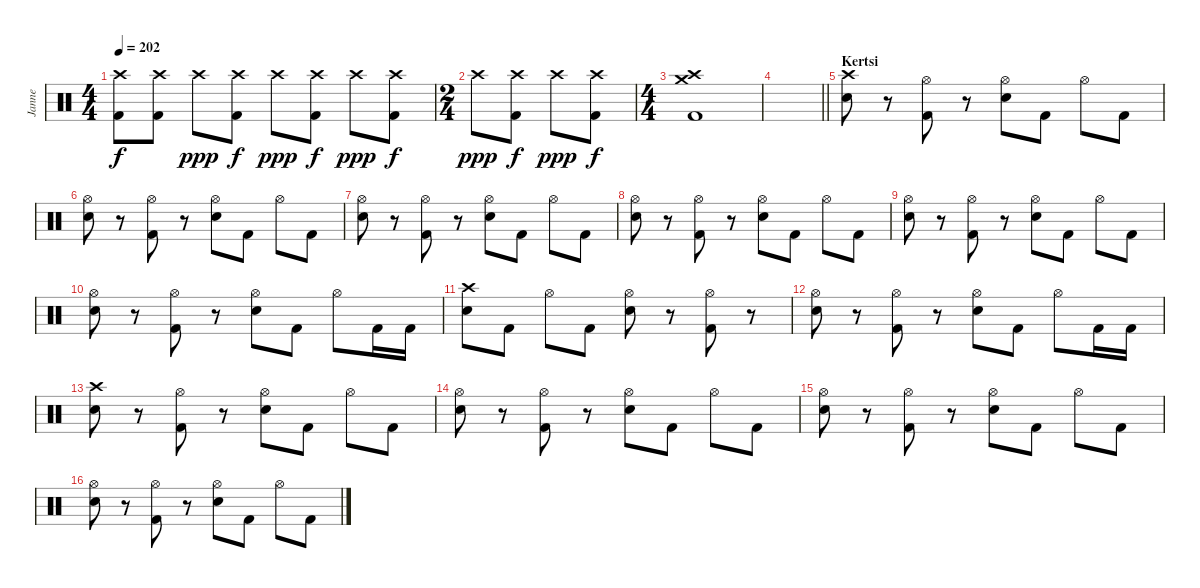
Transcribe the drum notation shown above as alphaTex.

\track ("Janne" "Janne") {instrument percussion}
\staff {score}
\articulation defaults
\ts (4 4)
\tempo 202
\clef neutral
\ks c
("Crash high (hit)" "Kick (hit) 2").8{dy f} ("Crash high (hit)" "Kick (hit) 2").8 "Crash high (hit)".8{dy ppp} ("Crash high (hit)" "Kick (hit) 2").8{dy f} "Crash high (hit)".8{dy ppp} ("Crash high (hit)" "Kick (hit) 2").8{dy f} "Crash high (hit)".8{dy ppp} ("Crash high (hit)" "Kick (hit) 2").8{dy f} |
\ts (2 4)
"Crash high (hit)".8{dy ppp} ("Crash high (hit)" "Kick (hit) 2").8{dy f} "Crash high (hit)".8{dy ppp} ("Crash high (hit)" "Kick (hit) 2").8{dy f} |
\ts (4 4)
("Crash high (hit)" "Crash medium (hit)" "Kick (hit) 2").1 |
\barLineRight lightlight
|
\section ("" "Kertsi")
("Crash high (hit)" "Electric Snare (hit)").8 r.8 ("Hi-Hat (open)" "Kick (hit) 2").8 r.8 ("Hi-Hat (open)" "Electric Snare (hit)").8 "Kick (hit) 2".8 "Hi-Hat (open)".8 "Kick (hit) 2".8 |
("Hi-Hat (open)" "Electric Snare (hit)").8 r.8 ("Hi-Hat (open)" "Kick (hit) 2").8 r.8 ("Hi-Hat (open)" "Electric Snare (hit)").8 "Kick (hit) 2".8 "Hi-Hat (open)".8 "Kick (hit) 2".8 |
("Hi-Hat (open)" "Electric Snare (hit)").8 r.8 ("Hi-Hat (open)" "Kick (hit) 2").8 r.8 ("Hi-Hat (open)" "Electric Snare (hit)").8 "Kick (hit) 2".8 "Hi-Hat (open)".8 "Kick (hit) 2".8 |
("Hi-Hat (open)" "Electric Snare (hit)").8 r.8 ("Hi-Hat (open)" "Kick (hit) 2").8 r.8 ("Hi-Hat (open)" "Electric Snare (hit)").8 "Kick (hit) 2".8 "Hi-Hat (open)".8 "Kick (hit) 2".8 |
("Hi-Hat (open)" "Electric Snare (hit)").8 r.8 ("Hi-Hat (open)" "Kick (hit) 2").8 r.8 ("Hi-Hat (open)" "Electric Snare (hit)").8 "Kick (hit) 2".8 "Hi-Hat (open)".8 "Kick (hit) 2".8 |
("Hi-Hat (open)" "Electric Snare (hit)").8 r.8 ("Hi-Hat (open)" "Kick (hit) 2").8 r.8 ("Hi-Hat (open)" "Electric Snare (hit)").8 "Kick (hit) 2".8 "Hi-Hat (open)".8 "Kick (hit) 2".16 "Kick (hit) 2".16 |
("Crash high (hit)" "Electric Snare (hit)").8 "Kick (hit) 2".8 "Hi-Hat (open)".8 "Kick (hit) 2".8 ("Hi-Hat (open)" "Electric Snare (hit)").8 r.8 ("Hi-Hat (open)" "Kick (hit) 2").8 r.8 |
("Hi-Hat (open)" "Electric Snare (hit)").8 r.8 ("Hi-Hat (open)" "Kick (hit) 2").8 r.8 ("Hi-Hat (open)" "Electric Snare (hit)").8 "Kick (hit) 2".8 "Hi-Hat (open)".8 "Kick (hit) 2".16 "Kick (hit) 2".16 |
("Crash high (hit)" "Electric Snare (hit)").8 r.8 ("Hi-Hat (open)" "Kick (hit) 2").8 r.8 ("Hi-Hat (open)" "Electric Snare (hit)").8 "Kick (hit) 2".8 "Hi-Hat (open)".8 "Kick (hit) 2".8 |
("Hi-Hat (open)" "Electric Snare (hit)").8 r.8 ("Hi-Hat (open)" "Kick (hit) 2").8 r.8 ("Hi-Hat (open)" "Electric Snare (hit)").8 "Kick (hit) 2".8 "Hi-Hat (open)".8 "Kick (hit) 2".8 |
("Hi-Hat (open)" "Electric Snare (hit)").8 r.8 ("Hi-Hat (open)" "Kick (hit) 2").8 r.8 ("Hi-Hat (open)" "Electric Snare (hit)").8 "Kick (hit) 2".8 "Hi-Hat (open)".8 "Kick (hit) 2".8 |
("Hi-Hat (open)" "Electric Snare (hit)").8 r.8 ("Hi-Hat (open)" "Kick (hit) 2").8 r.8 ("Hi-Hat (open)" "Electric Snare (hit)").8 "Kick (hit) 2".8 "Hi-Hat (open)".8 "Kick (hit) 2".8
